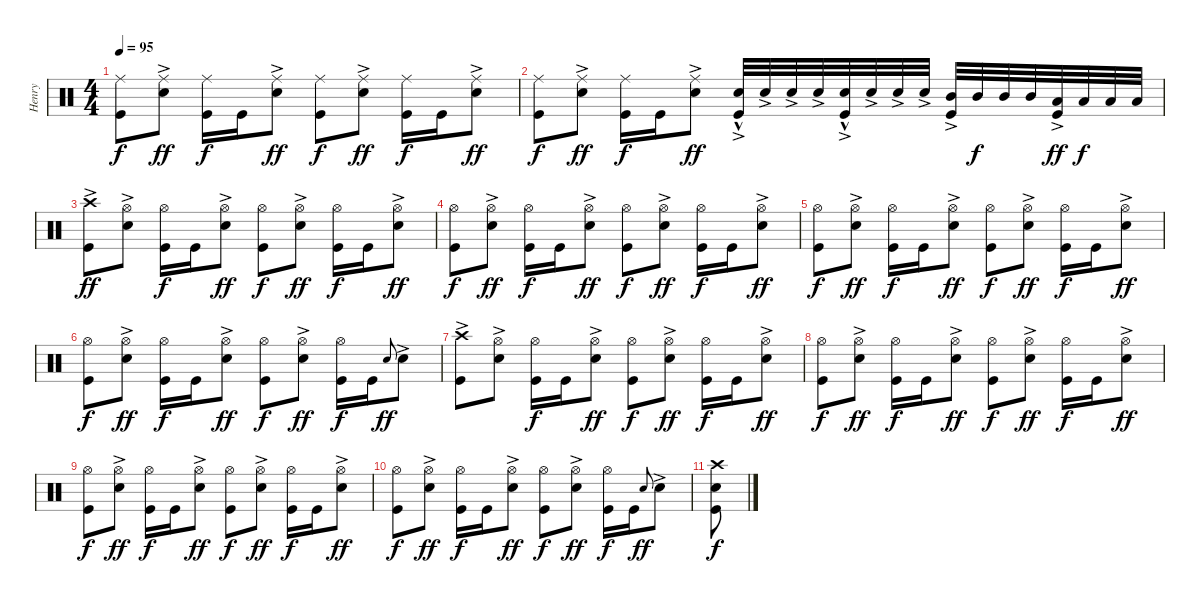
\track ("Henry" "Henry") {instrument percussion}
\staff {score}
\articulation defaults
\ts (4 4)
\tempo 95
\clef neutral
\ks c
("Ride (middle)" "Kick (hit)").8{dy f} ("Ride (middle)" "Snare (hit) 2"{ac}).8{dy ff} ("Ride (middle)" "Kick (hit)").16{dy f} "Kick (hit)".16 ("Ride (middle)" "Snare (hit) 2"{ac}).8{dy ff} ("Ride (middle)" "Kick (hit)").8{dy f} ("Ride (middle)" "Snare (hit) 2"{ac}).8{dy ff} ("Ride (middle)" "Kick (hit)").16{dy f} "Kick (hit)".16 ("Ride (middle)" "Snare (hit) 2"{ac}).8{dy ff} |
("Ride (middle)" "Kick (hit)").8{dy f} ("Ride (middle)" "Snare (hit) 2"{ac}).8{dy ff} ("Ride (middle)" "Kick (hit)").16{dy f} "Kick (hit)".16 ("Ride (middle)" "Snare (hit) 2"{ac}).8{dy ff} ("Snare (hit) 2"{hac} "Kick (hit)"{ac}).32 "Snare (hit) 2"{ac}.32 "Snare (hit) 2"{ac}.32 "Snare (hit) 2"{ac}.32 ("Snare (hit) 2"{hac} "Kick (hit)"{ac}).32 "Snare (hit) 2"{ac}.32 "Snare (hit) 2"{ac}.32 "Snare (hit) 2"{ac}.32 ("Mid Tom (hit)"{ac} "Kick (hit)"{ac}).32 "Mid Tom (hit)".32{dy f} "Mid Tom (hit)".32 "Mid Tom (hit)".32 ("Low Tom (hit)"{ac} "Kick (hit)"{ac}).32{dy ff} "Low Tom (hit)".32{dy f} "Low Tom (hit)".32 "Low Tom (hit)".32 |
("Crash high (hit)"{ac} "Kick (hit)"{ac}).8{dy ff} ("Hi-Hat (open)" "Snare (hit) 2"{ac}).8 ("Hi-Hat (open)" "Kick (hit)").16{dy f} "Kick (hit)".16 ("Hi-Hat (open)" "Snare (hit) 2"{ac}).8{dy ff} ("Hi-Hat (open)" "Kick (hit)").8{dy f} ("Hi-Hat (open)" "Snare (hit) 2"{ac}).8{dy ff} ("Hi-Hat (open)" "Kick (hit)").16{dy f} "Kick (hit)".16 ("Hi-Hat (open)" "Snare (hit) 2"{ac}).8{dy ff} |
("Hi-Hat (open)" "Kick (hit)").8{dy f} ("Hi-Hat (open)" "Snare (hit) 2"{ac}).8{dy ff} ("Hi-Hat (open)" "Kick (hit)").16{dy f} "Kick (hit)".16 ("Hi-Hat (open)" "Snare (hit) 2"{ac}).8{dy ff} ("Hi-Hat (open)" "Kick (hit)").8{dy f} ("Hi-Hat (open)" "Snare (hit) 2"{ac}).8{dy ff} ("Hi-Hat (open)" "Kick (hit)").16{dy f} "Kick (hit)".16 ("Hi-Hat (open)" "Snare (hit) 2"{ac}).8{dy ff} |
("Hi-Hat (open)" "Kick (hit)").8{dy f} ("Hi-Hat (open)" "Snare (hit) 2"{ac}).8{dy ff} ("Hi-Hat (open)" "Kick (hit)").16{dy f} "Kick (hit)".16 ("Hi-Hat (open)" "Snare (hit) 2"{ac}).8{dy ff} ("Hi-Hat (open)" "Kick (hit)").8{dy f} ("Hi-Hat (open)" "Snare (hit) 2"{ac}).8{dy ff} ("Hi-Hat (open)" "Kick (hit)").16{dy f} "Kick (hit)".16 ("Hi-Hat (open)" "Snare (hit) 2"{ac}).8{dy ff} |
("Hi-Hat (open)" "Kick (hit)").8{dy f} ("Hi-Hat (open)" "Snare (hit) 2"{ac}).8{dy ff} ("Hi-Hat (open)" "Kick (hit)").16{dy f} "Kick (hit)".16 ("Hi-Hat (open)" "Snare (hit) 2"{ac}).8{dy ff} ("Hi-Hat (open)" "Kick (hit)").8{dy f} ("Hi-Hat (open)" "Snare (hit) 2"{ac}).8{dy ff} ("Hi-Hat (open)" "Kick (hit)").16{dy f} "Kick (hit)".16 "Snare (hit) 2".8{gr onbeat dy ff} "Snare (hit) 2"{ac}.8 |
("Crash high (hit)"{ac} "Kick (hit)"{ac}).8 ("Hi-Hat (open)" "Snare (hit) 2"{ac}).8 ("Hi-Hat (open)" "Kick (hit)").16{dy f} "Kick (hit)".16 ("Hi-Hat (open)" "Snare (hit) 2"{ac}).8{dy ff} ("Hi-Hat (open)" "Kick (hit)").8{dy f} ("Hi-Hat (open)" "Snare (hit) 2"{ac}).8{dy ff} ("Hi-Hat (open)" "Kick (hit)").16{dy f} "Kick (hit)".16 ("Hi-Hat (open)" "Snare (hit) 2"{ac}).8{dy ff} |
("Hi-Hat (open)" "Kick (hit)").8{dy f} ("Hi-Hat (open)" "Snare (hit) 2"{ac}).8{dy ff} ("Hi-Hat (open)" "Kick (hit)").16{dy f} "Kick (hit)".16 ("Hi-Hat (open)" "Snare (hit) 2"{ac}).8{dy ff} ("Hi-Hat (open)" "Kick (hit)").8{dy f} ("Hi-Hat (open)" "Snare (hit) 2"{ac}).8{dy ff} ("Hi-Hat (open)" "Kick (hit)").16{dy f} "Kick (hit)".16 ("Hi-Hat (open)" "Snare (hit) 2"{ac}).8{dy ff} |
("Hi-Hat (open)" "Kick (hit)").8{dy f} ("Hi-Hat (open)" "Snare (hit) 2"{ac}).8{dy ff} ("Hi-Hat (open)" "Kick (hit)").16{dy f} "Kick (hit)".16 ("Hi-Hat (open)" "Snare (hit) 2"{ac}).8{dy ff} ("Hi-Hat (open)" "Kick (hit)").8{dy f} ("Hi-Hat (open)" "Snare (hit) 2"{ac}).8{dy ff} ("Hi-Hat (open)" "Kick (hit)").16{dy f} "Kick (hit)".16 ("Hi-Hat (open)" "Snare (hit) 2"{ac}).8{dy ff} |
("Hi-Hat (open)" "Kick (hit)").8{dy f} ("Hi-Hat (open)" "Snare (hit) 2"{ac}).8{dy ff} ("Hi-Hat (open)" "Kick (hit)").16{dy f} "Kick (hit)".16 ("Hi-Hat (open)" "Snare (hit) 2"{ac}).8{dy ff} ("Hi-Hat (open)" "Kick (hit)").8{dy f} ("Hi-Hat (open)" "Snare (hit) 2"{ac}).8{dy ff} ("Hi-Hat (open)" "Kick (hit)").16{dy f} "Kick (hit)".16 "Snare (hit) 2".8{gr onbeat dy ff} "Snare (hit) 2"{ac}.8 |
("Crash high (hit)" "Snare (hit) 2" "Kick (hit)").8{dy f}
